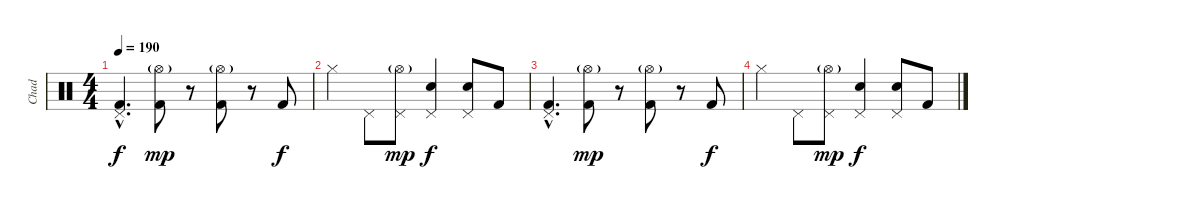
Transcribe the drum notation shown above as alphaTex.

\track ("Chad" "Chad") {instrument percussion}
\staff {score}
\articulation defaults
\ts (4 4)
\tempo 190
\clef neutral
\ks c
("Kick (hit) 2"{hac} "Pedal Hi-Hat (hit)"{hac}).4{d dy f} ("Kick (hit) 2" "Hi-Hat (open)"{g}).8{dy mp} r.8 ("Kick (hit) 2" "Hi-Hat (open)"{g}).8 r.8 "Kick (hit) 2".8{dy f} |
"Hi-Hat (closed)".4 "Pedal Hi-Hat (hit)".8 ("Pedal Hi-Hat (hit)" "Hi-Hat (open)"{g}).8{dy mp} ("Electric Snare (hit)" "Pedal Hi-Hat (hit)").4{dy f} ("Electric Snare (hit)" "Pedal Hi-Hat (hit)").8 "Kick (hit) 2".8 |
("Kick (hit) 2"{hac} "Pedal Hi-Hat (hit)"{hac}).4{d} ("Kick (hit) 2" "Hi-Hat (open)"{g}).8{dy mp} r.8 ("Kick (hit) 2" "Hi-Hat (open)"{g}).8 r.8 "Kick (hit) 2".8{dy f} |
"Hi-Hat (closed)".4 "Pedal Hi-Hat (hit)".8 ("Pedal Hi-Hat (hit)" "Hi-Hat (open)"{g}).8{dy mp} ("Electric Snare (hit)" "Pedal Hi-Hat (hit)").4{dy f} ("Electric Snare (hit)" "Pedal Hi-Hat (hit)").8 "Kick (hit) 2".8
